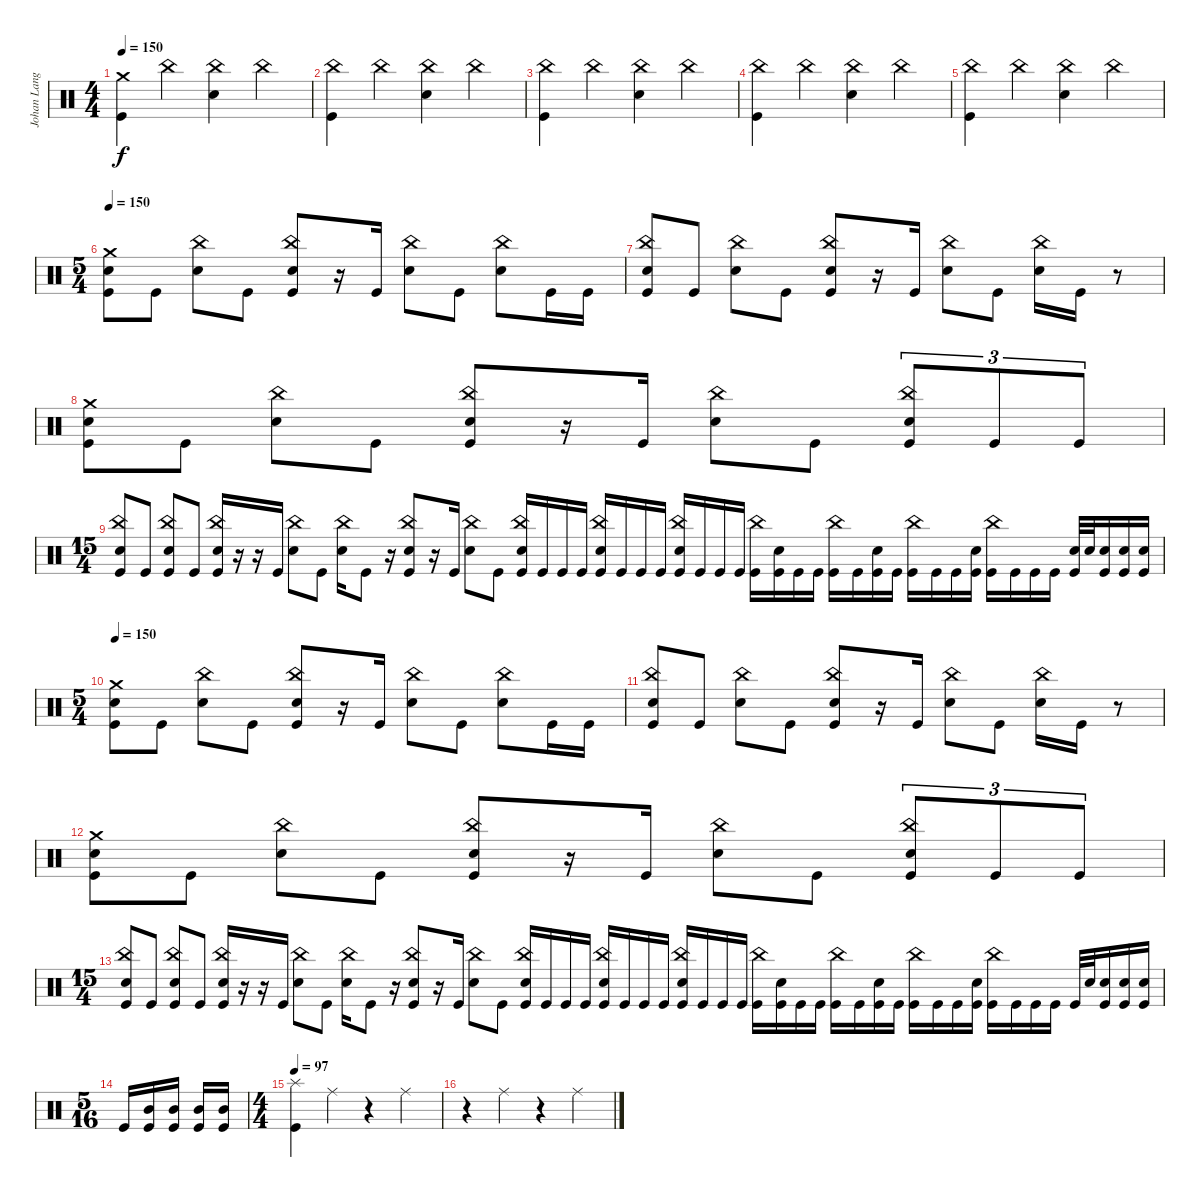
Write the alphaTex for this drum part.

\track ("Johan Langell" "Johan Lang") {instrument percussion}
\staff {score}
\articulation defaults
\ts (4 4)
\tempo 150
\clef neutral
\ks c
("Crash medium (hit)" "Kick (hit)").4{dy f} "China (hit)".4 ("China (hit)" "Electric Snare (hit)").4 "China (hit)".4 |
("China (hit)" "Kick (hit)").4 "China (hit)".4 ("China (hit)" "Electric Snare (hit)").4 "China (hit)".4 |
("China (hit)" "Kick (hit)").4 "China (hit)".4 ("China (hit)" "Electric Snare (hit)").4 "China (hit)".4 |
("China (hit)" "Kick (hit)").4 "China (hit)".4 ("China (hit)" "Electric Snare (hit)").4 "China (hit)".4 |
("China (hit)" "Kick (hit)").4 "China (hit)".4 ("China (hit)" "Electric Snare (hit)").4 "China (hit)".4 |
\ts (5 4)
\tempo 150
("Crash medium (hit)" "Electric Snare (hit)" "Kick (hit)").8 "Kick (hit)".8 ("China (hit)" "Electric Snare (hit)").8 "Kick (hit)".8 ("China (hit)" "Electric Snare (hit)" "Kick (hit)").8 r.16 "Kick (hit)".16 ("China (hit)" "Electric Snare (hit)").8 "Kick (hit)".8 ("China (hit)" "Electric Snare (hit)").8 "Kick (hit)".16 "Kick (hit)".16 |
("China (hit)" "Electric Snare (hit)" "Kick (hit)").8 "Kick (hit)".8 ("China (hit)" "Electric Snare (hit)").8 "Kick (hit)".8 ("China (hit)" "Electric Snare (hit)" "Kick (hit)").8 r.16 "Kick (hit)".16 ("China (hit)" "Electric Snare (hit)").8 "Kick (hit)".8 ("China (hit)" "Electric Snare (hit)").16 "Kick (hit)".16 r.8 |
("Crash medium (hit)" "Electric Snare (hit)" "Kick (hit)").8 "Kick (hit)".8 ("China (hit)" "Electric Snare (hit)").8 "Kick (hit)".8 ("China (hit)" "Electric Snare (hit)" "Kick (hit)").8 r.16 "Kick (hit)".16 ("China (hit)" "Electric Snare (hit)").8 "Kick (hit)".8 ("China (hit)" "Electric Snare (hit)" "Kick (hit)").8{tu (3 2)} "Kick (hit)".8{tu (3 2)} "Kick (hit)".8{tu (3 2)} |
\ts (15 4)
("China (hit)" "Electric Snare (hit)" "Kick (hit)").8 "Kick (hit)".8 ("China (hit)" "Electric Snare (hit)" "Kick (hit)").8 "Kick (hit)".8 ("China (hit)" "Electric Snare (hit)" "Kick (hit)").16 r.16 r.16 "Kick (hit)".16 ("China (hit)" "Electric Snare (hit)").8 "Kick (hit)".8 ("China (hit)" "Electric Snare (hit)").16 "Kick (hit)".8 r.16 ("China (hit)" "Electric Snare (hit)" "Kick (hit)").8 r.16 "Kick (hit)".16 ("China (hit)" "Electric Snare (hit)").8 "Kick (hit)".8 ("China (hit)" "Electric Snare (hit)" "Kick (hit)").16 "Kick (hit)".16 "Kick (hit)".16 "Kick (hit)".16 ("China (hit)" "Electric Snare (hit)" "Kick (hit)").16 "Kick (hit)".16 "Kick (hit)".16 "Kick (hit)".16 ("China (hit)" "Electric Snare (hit)" "Kick (hit)").16 "Kick (hit)".16 "Kick (hit)".16 "Kick (hit)".16 ("China (hit)" "Kick (hit)").16 ("Electric Snare (hit)" "Kick (hit)").16 "Kick (hit)".16 "Kick (hit)".16 ("China (hit)" "Kick (hit)").16 "Kick (hit)".16 ("Electric Snare (hit)" "Kick (hit)").16 "Kick (hit)".16 ("China (hit)" "Kick (hit)").16 "Kick (hit)".16 "Kick (hit)".16 ("Electric Snare (hit)" "Kick (hit)").16 ("China (hit)" "Kick (hit)").16 "Kick (hit)".16 "Kick (hit)".16 "Kick (hit)".16 ("Electric Snare (hit)" "Kick (hit)").32 "Electric Snare (hit)".32 ("Electric Snare (hit)" "Kick (hit)").16 ("Electric Snare (hit)" "Kick (hit)").16 ("Electric Snare (hit)" "Kick (hit)").16 |
\ts (5 4)
\tempo 150
("Crash medium (hit)" "Electric Snare (hit)" "Kick (hit)").8 "Kick (hit)".8 ("China (hit)" "Electric Snare (hit)").8 "Kick (hit)".8 ("China (hit)" "Electric Snare (hit)" "Kick (hit)").8 r.16 "Kick (hit)".16 ("China (hit)" "Electric Snare (hit)").8 "Kick (hit)".8 ("China (hit)" "Electric Snare (hit)").8 "Kick (hit)".16 "Kick (hit)".16 |
("China (hit)" "Electric Snare (hit)" "Kick (hit)").8 "Kick (hit)".8 ("China (hit)" "Electric Snare (hit)").8 "Kick (hit)".8 ("China (hit)" "Electric Snare (hit)" "Kick (hit)").8 r.16 "Kick (hit)".16 ("China (hit)" "Electric Snare (hit)").8 "Kick (hit)".8 ("China (hit)" "Electric Snare (hit)").16 "Kick (hit)".16 r.8 |
("Crash medium (hit)" "Electric Snare (hit)" "Kick (hit)").8 "Kick (hit)".8 ("China (hit)" "Electric Snare (hit)").8 "Kick (hit)".8 ("China (hit)" "Electric Snare (hit)" "Kick (hit)").8 r.16 "Kick (hit)".16 ("China (hit)" "Electric Snare (hit)").8 "Kick (hit)".8 ("China (hit)" "Electric Snare (hit)" "Kick (hit)").8{tu (3 2)} "Kick (hit)".8{tu (3 2)} "Kick (hit)".8{tu (3 2)} |
\ts (15 4)
("China (hit)" "Electric Snare (hit)" "Kick (hit)").8 "Kick (hit)".8 ("China (hit)" "Electric Snare (hit)" "Kick (hit)").8 "Kick (hit)".8 ("China (hit)" "Electric Snare (hit)" "Kick (hit)").16 r.16 r.16 "Kick (hit)".16 ("China (hit)" "Electric Snare (hit)").8 "Kick (hit)".8 ("China (hit)" "Electric Snare (hit)").16 "Kick (hit)".8 r.16 ("China (hit)" "Electric Snare (hit)" "Kick (hit)").8 r.16 "Kick (hit)".16 ("China (hit)" "Electric Snare (hit)").8 "Kick (hit)".8 ("China (hit)" "Electric Snare (hit)" "Kick (hit)").16 "Kick (hit)".16 "Kick (hit)".16 "Kick (hit)".16 ("China (hit)" "Electric Snare (hit)" "Kick (hit)").16 "Kick (hit)".16 "Kick (hit)".16 "Kick (hit)".16 ("China (hit)" "Electric Snare (hit)" "Kick (hit)").16 "Kick (hit)".16 "Kick (hit)".16 "Kick (hit)".16 ("China (hit)" "Kick (hit)").16 ("Electric Snare (hit)" "Kick (hit)").16 "Kick (hit)".16 "Kick (hit)".16 ("China (hit)" "Kick (hit)").16 "Kick (hit)".16 ("Electric Snare (hit)" "Kick (hit)").16 "Kick (hit)".16 ("China (hit)" "Kick (hit)").16 "Kick (hit)".16 "Kick (hit)".16 ("Electric Snare (hit)" "Kick (hit)").16 ("China (hit)" "Kick (hit)").16 "Kick (hit)".16 "Kick (hit)".16 "Kick (hit)".16 "Kick (hit)".32 "Electric Snare (hit)".32 ("Electric Snare (hit)" "Kick (hit)").16 ("Electric Snare (hit)" "Kick (hit)").16 ("Electric Snare (hit)" "Kick (hit)").16 |
\ts (5 16)
"Kick (hit)".16 ("Mid Tom (hit)" "Kick (hit)").16 ("Mid Tom (hit)" "Kick (hit)").16 ("Mid Tom (hit)" "Kick (hit)").16 ("Mid Tom (hit)" "Kick (hit)").16 |
\ts (4 4)
\tempo 97
("Splash (hit)" "Kick (hit)").4 "Ride (middle)".4 r.4 "Ride (middle)".4 |
r.4 "Ride (middle)".4 r.4 "Ride (middle)".4
